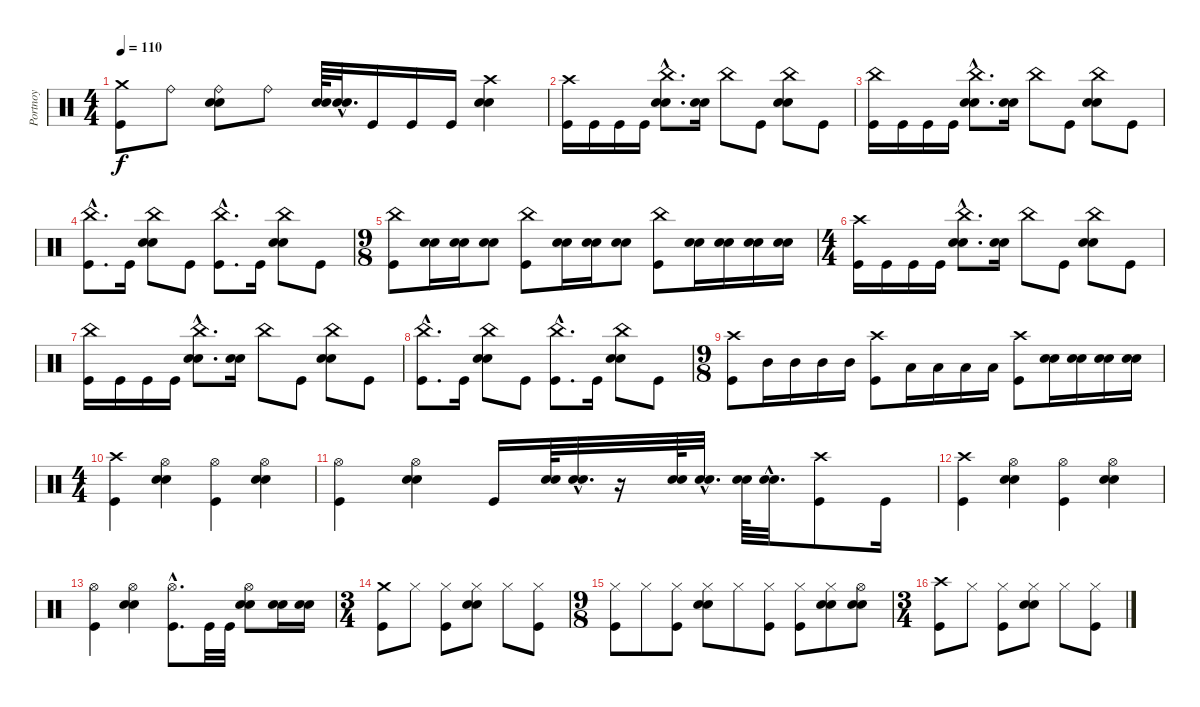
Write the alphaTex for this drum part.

\track ("Portnoy" "Portnoy") {instrument percussion}
\staff {score}
\articulation defaults
\ts (4 4)
\tempo 110
\clef neutral
\ks c
("Crash medium (hit)" "Kick (hit)").8{dy f} "Ride (bell)".8 ("Ride (bell)" "Snare (hit) 2" "Electric Snare (hit)").8 "Ride (bell)".8 ("Snare (hit) 2" "Electric Snare (hit)").64 ("Snare (hit) 2"{hac} "Electric Snare (hit)"{hac}).32{d} "Kick (hit)".16 "Kick (hit)".16 "Kick (hit)".16 ("Crash high (hit)" "Snare (hit) 2" "Electric Snare (hit)").4 |
("Crash high (hit)" "Kick (hit)").16 "Kick (hit)".16 "Kick (hit)".16 "Kick (hit)".16 ("China (hit)"{hac} "Snare (hit) 2"{hac} "Electric Snare (hit)"{hac}).8{d} ("Snare (hit) 2" "Electric Snare (hit)").16 "China (hit)".8 "Kick (hit)".8 ("China (hit)" "Snare (hit) 2" "Electric Snare (hit)").8 "Kick (hit)".8 |
("China (hit)" "Kick (hit)").16 "Kick (hit)".16 "Kick (hit)".16 "Kick (hit)".16 ("China (hit)"{hac} "Snare (hit) 2"{hac} "Electric Snare (hit)"{hac}).8{d} ("Snare (hit) 2" "Electric Snare (hit)").16 "China (hit)".8 "Kick (hit)".8 ("China (hit)" "Snare (hit) 2" "Electric Snare (hit)").8 "Kick (hit)".8 |
("China (hit)"{hac} "Kick (hit)"{hac}).8{d} "Kick (hit)".16 ("China (hit)" "Snare (hit) 2" "Electric Snare (hit)").8 "Kick (hit)".8 ("China (hit)"{hac} "Kick (hit)"{hac}).8{d} "Kick (hit)".16 ("China (hit)" "Snare (hit) 2" "Electric Snare (hit)").8 "Kick (hit)".8 |
\ts (9 8)
("China (hit)" "Kick (hit)").8 ("Snare (hit) 2" "Electric Snare (hit)").16 ("Snare (hit) 2" "Electric Snare (hit)").16 ("Snare (hit) 2" "Electric Snare (hit)").8 ("China (hit)" "Kick (hit)").8 ("Snare (hit) 2" "Electric Snare (hit)").16 ("Snare (hit) 2" "Electric Snare (hit)").16 ("Snare (hit) 2" "Electric Snare (hit)").8 ("China (hit)" "Kick (hit)").8 ("Snare (hit) 2" "Electric Snare (hit)").16 ("Snare (hit) 2" "Electric Snare (hit)").16 ("Snare (hit) 2" "Electric Snare (hit)").16 ("Snare (hit) 2" "Electric Snare (hit)").16 |
\ts (4 4)
("Crash high (hit)" "Kick (hit)").16 "Kick (hit)".16 "Kick (hit)".16 "Kick (hit)".16 ("China (hit)"{hac} "Snare (hit) 2"{hac} "Electric Snare (hit)"{hac}).8{d} ("Snare (hit) 2" "Electric Snare (hit)").16 "China (hit)".8 "Kick (hit)".8 ("China (hit)" "Snare (hit) 2" "Electric Snare (hit)").8 "Kick (hit)".8 |
("China (hit)" "Kick (hit)").16 "Kick (hit)".16 "Kick (hit)".16 "Kick (hit)".16 ("China (hit)"{hac} "Snare (hit) 2"{hac} "Electric Snare (hit)"{hac}).8{d} ("Snare (hit) 2" "Electric Snare (hit)").16 "China (hit)".8 "Kick (hit)".8 ("China (hit)" "Snare (hit) 2" "Electric Snare (hit)").8 "Kick (hit)".8 |
("China (hit)"{hac} "Kick (hit)"{hac}).8{d} "Kick (hit)".16 ("China (hit)" "Snare (hit) 2" "Electric Snare (hit)").8 "Kick (hit)".8 ("China (hit)"{hac} "Kick (hit)"{hac}).8{d} "Kick (hit)".16 ("China (hit)" "Snare (hit) 2" "Electric Snare (hit)").8 "Kick (hit)".8 |
\ts (9 8)
("Crash high (hit)" "Kick (hit)").8 "Mid Tom (hit)".16 "Mid Tom (hit)".16 "Mid Tom (hit)".16 "Mid Tom (hit)".16 ("Crash high (hit)" "Kick (hit)").8 "Low Tom (hit)".16 "Low Tom (hit)".16 "Low Tom (hit)".16 "Low Tom (hit)".16 ("Crash high (hit)" "Kick (hit)").8 ("Snare (hit) 2" "Electric Snare (hit)").16 ("Snare (hit) 2" "Electric Snare (hit)").16 ("Snare (hit) 2" "Electric Snare (hit)").16 ("Snare (hit) 2" "Electric Snare (hit)").16 |
\ts (4 4)
("Crash high (hit)" "Kick (hit)").4 ("Hi-Hat (open)" "Snare (hit) 2" "Electric Snare (hit)").4 ("Hi-Hat (open)" "Kick (hit)").4 ("Hi-Hat (open)" "Snare (hit) 2" "Electric Snare (hit)").4 |
("Hi-Hat (open)" "Kick (hit)").4 ("Hi-Hat (open)" "Snare (hit) 2" "Electric Snare (hit)").4 "Kick (hit)".16 ("Snare (hit) 2" "Electric Snare (hit)").64 ("Snare (hit) 2"{hac} "Electric Snare (hit)"{hac}).32{d} r.16 ("Snare (hit) 2" "Electric Snare (hit)").64 ("Snare (hit) 2"{hac} "Electric Snare (hit)"{hac}).32{d} ("Snare (hit) 2" "Electric Snare (hit)").64 ("Snare (hit) 2"{hac} "Electric Snare (hit)"{hac}).32{d} ("Crash high (hit)" "Kick (hit)").8 "Kick (hit)".16 |
("Crash high (hit)" "Kick (hit)").4 ("Hi-Hat (open)" "Snare (hit) 2" "Electric Snare (hit)").4 ("Hi-Hat (open)" "Kick (hit)").4 ("Hi-Hat (open)" "Snare (hit) 2" "Electric Snare (hit)").4 |
("Hi-Hat (open)" "Kick (hit)").4 ("Hi-Hat (open)" "Snare (hit) 2" "Electric Snare (hit)").4 ("Hi-Hat (open)"{hac} "Kick (hit)"{hac}).8{d} "Kick (hit)".32 "Kick (hit)".32 ("Hi-Hat (open)" "Snare (hit) 2" "Electric Snare (hit)").8 ("Snare (hit) 2" "Electric Snare (hit)").16 ("Snare (hit) 2" "Electric Snare (hit)").16 |
\ts (3 4)
("Crash medium (hit)" "Kick (hit)").8 "Hi-Hat (closed)".8 ("Hi-Hat (closed)" "Kick (hit)").8 ("Hi-Hat (closed)" "Snare (hit) 2" "Electric Snare (hit)").8 "Hi-Hat (closed)".8 ("Hi-Hat (closed)" "Kick (hit)").8 |
\ts (9 8)
("Hi-Hat (closed)" "Kick (hit)").8 "Hi-Hat (closed)".8 ("Hi-Hat (closed)" "Kick (hit)").8 ("Hi-Hat (closed)" "Snare (hit) 2" "Electric Snare (hit)").8 "Hi-Hat (closed)".8 ("Hi-Hat (closed)" "Kick (hit)").8 ("Hi-Hat (closed)" "Kick (hit)").8 ("Hi-Hat (closed)" "Snare (hit) 2" "Electric Snare (hit)").8 ("Hi-Hat (open)" "Snare (hit) 2" "Electric Snare (hit)").8 |
\ts (3 4)
("Crash high (hit)" "Kick (hit)").8 "Hi-Hat (closed)".8 ("Hi-Hat (closed)" "Kick (hit)").8 ("Hi-Hat (closed)" "Snare (hit) 2" "Electric Snare (hit)").8 "Hi-Hat (closed)".8 ("Hi-Hat (closed)" "Kick (hit)").8
